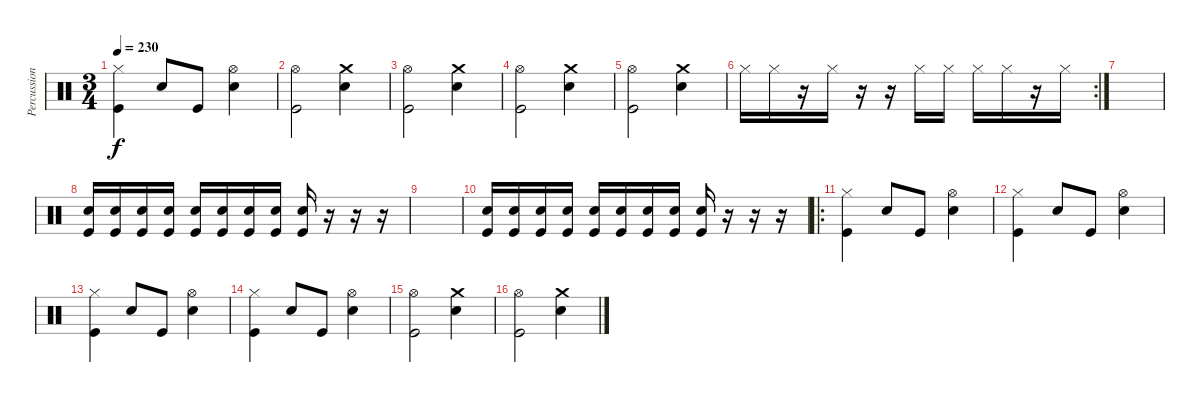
\track ("Percussion" "Percussion") {instrument percussion}
\staff {score}
\articulation defaults
\ts (3 4)
\tempo 230
\clef neutral
\ks c
("Hi-Hat (closed)" "Kick (hit)").4{dy f} "Snare (hit) 2".8 "Kick (hit)".8 ("Hi-Hat (open)" "Snare (hit) 2").4 |
("Hi-Hat (open)" "Kick (hit)").2 ("Crash medium (hit)" "Snare (hit) 2").4 |
("Hi-Hat (open)" "Kick (hit)").2 ("Crash medium (hit)" "Snare (hit) 2").4 |
("Hi-Hat (open)" "Kick (hit)").2 ("Crash medium (hit)" "Snare (hit) 2").4 |
("Hi-Hat (open)" "Kick (hit)").2 ("Crash medium (hit)" "Snare (hit) 2").4 |
\rc 2 "Hi-Hat (closed)".16 "Hi-Hat (closed)".16
r.16 "Hi-Hat (closed)".16 r.16 r.16 "Hi-Hat (closed)".16 "Hi-Hat (closed)".16 "Hi-Hat (closed)".16 "Hi-Hat (closed)".16 r.16 "Hi-Hat (closed)".16 |
|
("Snare (hit) 2" "Kick (hit)").16 ("Snare (hit) 2" "Kick (hit)").16 ("Snare (hit) 2" "Kick (hit)").16 ("Snare (hit) 2" "Kick (hit)").16 ("Snare (hit) 2" "Kick (hit)").16 ("Snare (hit) 2" "Kick (hit)").16 ("Snare (hit) 2" "Kick (hit)").16 ("Snare (hit) 2" "Kick (hit)").16 ("Snare (hit) 2" "Kick (hit)").16 r.16 r.16 r.16 |
|
("Snare (hit) 2" "Kick (hit)").16 ("Snare (hit) 2" "Kick (hit)").16 ("Snare (hit) 2" "Kick (hit)").16 ("Snare (hit) 2" "Kick (hit)").16 ("Snare (hit) 2" "Kick (hit)").16 ("Snare (hit) 2" "Kick (hit)").16 ("Snare (hit) 2" "Kick (hit)").16 ("Snare (hit) 2" "Kick (hit)").16 ("Snare (hit) 2" "Kick (hit)").16 r.16 r.16 r.16 |
\ro
("Hi-Hat (closed)" "Kick (hit)").4 "Snare (hit) 2".8 "Kick (hit)".8 ("Hi-Hat (open)" "Snare (hit) 2").4 |
("Hi-Hat (closed)" "Kick (hit)").4 "Snare (hit) 2".8 "Kick (hit)".8 ("Hi-Hat (open)" "Snare (hit) 2").4 |
("Hi-Hat (closed)" "Kick (hit)").4 "Snare (hit) 2".8 "Kick (hit)".8 ("Hi-Hat (open)" "Snare (hit) 2").4 |
("Hi-Hat (closed)" "Kick (hit)").4 "Snare (hit) 2".8 "Kick (hit)".8 ("Hi-Hat (open)" "Snare (hit) 2").4 |
("Hi-Hat (open)" "Kick (hit)").2 ("Crash medium (hit)" "Snare (hit) 2").4 |
("Hi-Hat (open)" "Kick (hit)").2 ("Crash medium (hit)" "Snare (hit) 2").4
